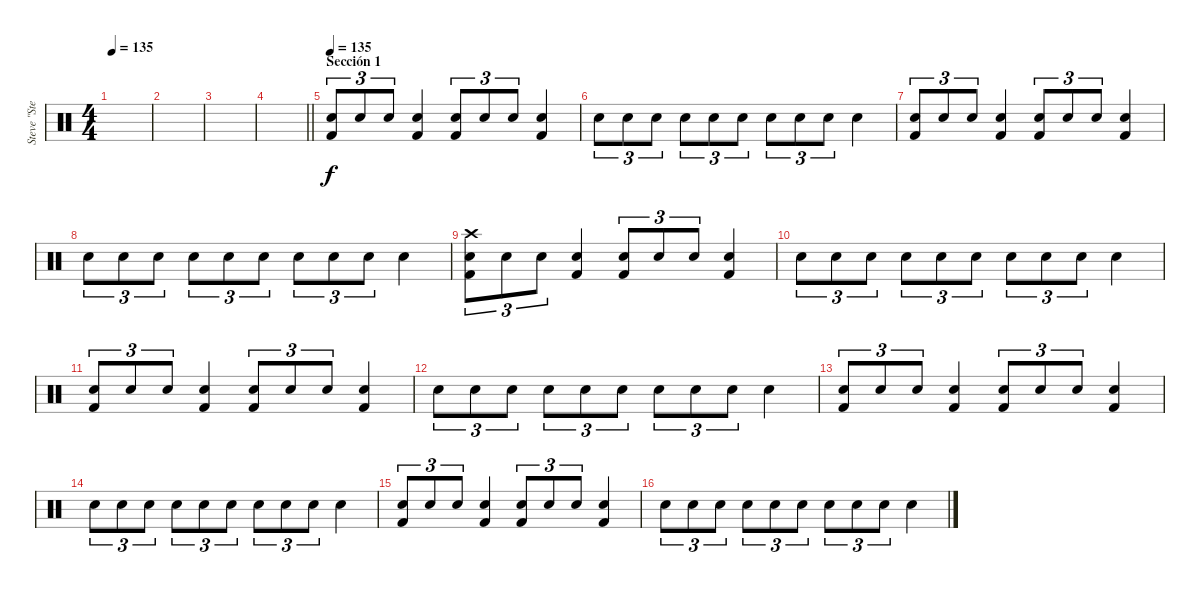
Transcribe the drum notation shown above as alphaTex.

\track ("Steve \"Stevo 32\" Jocz" "Steve \"Ste") {instrument percussion}
\staff {score}
\articulation defaults
\ts (4 4)
\tempo 135
\clef neutral
\ks c
|
|
|
\barLineRight lightlight
|
\section ("" "Sección 1")
\tempo 135
("Snare (hit) 2" "Kick (hit) 2").8{tu (3 2)} "Snare (hit) 2".8{tu (3 2)} "Snare (hit) 2".8{tu (3 2)} ("Snare (hit) 2" "Kick (hit) 2").4 ("Snare (hit) 2" "Kick (hit) 2").8{tu (3 2)} "Snare (hit) 2".8{tu (3 2)} "Snare (hit) 2".8{tu (3 2)} ("Snare (hit) 2" "Kick (hit) 2").4 |
"Snare (hit) 2".8{tu (3 2)} "Snare (hit) 2".8{tu (3 2)} "Snare (hit) 2".8{tu (3 2)} "Snare (hit) 2".8{tu (3 2)} "Snare (hit) 2".8{tu (3 2)} "Snare (hit) 2".8{tu (3 2)} "Snare (hit) 2".8{tu (3 2)} "Snare (hit) 2".8{tu (3 2)} "Snare (hit) 2".8{tu (3 2)} "Snare (hit) 2".4 |
("Snare (hit) 2" "Kick (hit) 2").8{tu (3 2)} "Snare (hit) 2".8{tu (3 2)} "Snare (hit) 2".8{tu (3 2)} ("Snare (hit) 2" "Kick (hit) 2").4 ("Snare (hit) 2" "Kick (hit) 2").8{tu (3 2)} "Snare (hit) 2".8{tu (3 2)} "Snare (hit) 2".8{tu (3 2)} ("Snare (hit) 2" "Kick (hit) 2").4 |
"Snare (hit) 2".8{tu (3 2)} "Snare (hit) 2".8{tu (3 2)} "Snare (hit) 2".8{tu (3 2)} "Snare (hit) 2".8{tu (3 2)} "Snare (hit) 2".8{tu (3 2)} "Snare (hit) 2".8{tu (3 2)} "Snare (hit) 2".8{tu (3 2)} "Snare (hit) 2".8{tu (3 2)} "Snare (hit) 2".8{tu (3 2)} "Snare (hit) 2".4 |
("Snare (hit) 2" "Crash high (hit)" "Kick (hit) 2").8{tu (3 2)} "Snare (hit) 2".8{tu (3 2)} "Snare (hit) 2".8{tu (3 2)} ("Snare (hit) 2" "Kick (hit) 2").4 ("Snare (hit) 2" "Kick (hit) 2").8{tu (3 2)} "Snare (hit) 2".8{tu (3 2)} "Snare (hit) 2".8{tu (3 2)} ("Snare (hit) 2" "Kick (hit) 2").4 |
"Snare (hit) 2".8{tu (3 2)} "Snare (hit) 2".8{tu (3 2)} "Snare (hit) 2".8{tu (3 2)} "Snare (hit) 2".8{tu (3 2)} "Snare (hit) 2".8{tu (3 2)} "Snare (hit) 2".8{tu (3 2)} "Snare (hit) 2".8{tu (3 2)} "Snare (hit) 2".8{tu (3 2)} "Snare (hit) 2".8{tu (3 2)} "Snare (hit) 2".4 |
("Snare (hit) 2" "Kick (hit) 2").8{tu (3 2)} "Snare (hit) 2".8{tu (3 2)} "Snare (hit) 2".8{tu (3 2)} ("Snare (hit) 2" "Kick (hit) 2").4 ("Snare (hit) 2" "Kick (hit) 2").8{tu (3 2)} "Snare (hit) 2".8{tu (3 2)} "Snare (hit) 2".8{tu (3 2)} ("Snare (hit) 2" "Kick (hit) 2").4 |
"Snare (hit) 2".8{tu (3 2)} "Snare (hit) 2".8{tu (3 2)} "Snare (hit) 2".8{tu (3 2)} "Snare (hit) 2".8{tu (3 2)} "Snare (hit) 2".8{tu (3 2)} "Snare (hit) 2".8{tu (3 2)} "Snare (hit) 2".8{tu (3 2)} "Snare (hit) 2".8{tu (3 2)} "Snare (hit) 2".8{tu (3 2)} "Snare (hit) 2".4 |
("Snare (hit) 2" "Kick (hit) 2").8{tu (3 2)} "Snare (hit) 2".8{tu (3 2)} "Snare (hit) 2".8{tu (3 2)} ("Snare (hit) 2" "Kick (hit) 2").4 ("Snare (hit) 2" "Kick (hit) 2").8{tu (3 2)} "Snare (hit) 2".8{tu (3 2)} "Snare (hit) 2".8{tu (3 2)} ("Snare (hit) 2" "Kick (hit) 2").4 |
"Snare (hit) 2".8{tu (3 2)} "Snare (hit) 2".8{tu (3 2)} "Snare (hit) 2".8{tu (3 2)} "Snare (hit) 2".8{tu (3 2)} "Snare (hit) 2".8{tu (3 2)} "Snare (hit) 2".8{tu (3 2)} "Snare (hit) 2".8{tu (3 2)} "Snare (hit) 2".8{tu (3 2)} "Snare (hit) 2".8{tu (3 2)} "Snare (hit) 2".4 |
("Snare (hit) 2" "Kick (hit) 2").8{tu (3 2)} "Snare (hit) 2".8{tu (3 2)} "Snare (hit) 2".8{tu (3 2)} ("Snare (hit) 2" "Kick (hit) 2").4 ("Snare (hit) 2" "Kick (hit) 2").8{tu (3 2)} "Snare (hit) 2".8{tu (3 2)} "Snare (hit) 2".8{tu (3 2)} ("Snare (hit) 2" "Kick (hit) 2").4 |
"Snare (hit) 2".8{tu (3 2)} "Snare (hit) 2".8{tu (3 2)} "Snare (hit) 2".8{tu (3 2)} "Snare (hit) 2".8{tu (3 2)} "Snare (hit) 2".8{tu (3 2)} "Snare (hit) 2".8{tu (3 2)} "Snare (hit) 2".8{tu (3 2)} "Snare (hit) 2".8{tu (3 2)} "Snare (hit) 2".8{tu (3 2)} "Snare (hit) 2".4
